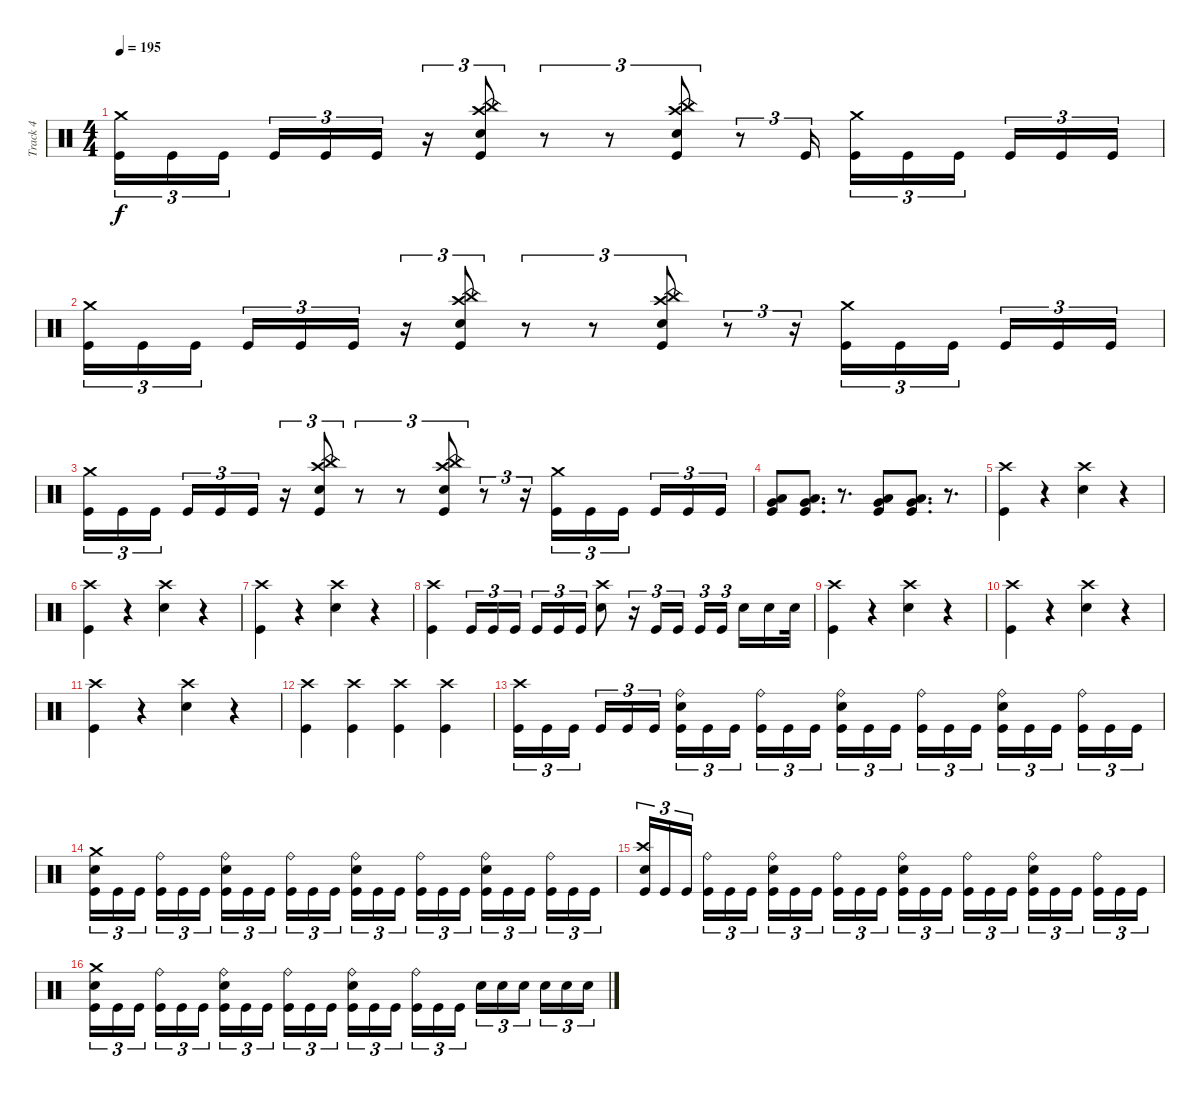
\track ("Track 4" "Track 4") {instrument percussion}
\staff {score}
\articulation defaults
\ts (4 4)
\tempo 195
\clef neutral
\ks c
("Crash medium (hit)" "Kick (hit)").16{tu (3 2) dy f} "Kick (hit)".16{tu (3 2)} "Kick (hit)".16{tu (3 2)} "Kick (hit)".16{tu (3 2)} "Kick (hit)".16{tu (3 2)} "Kick (hit)".16{tu (3 2)} r.16{tu (3 2)} ("Crash high (hit)" "China (hit)" "Electric Snare (hit)" "Kick (hit)").8{tu (3 2)} r.8{tu (3 2)} r.8{tu (3 2)} ("Crash high (hit)" "China (hit)" "Electric Snare (hit)" "Kick (hit)").8{tu (3 2)} r.8{tu (3 2)} "Kick (hit)".16{tu (3 2)} ("Crash medium (hit)" "Kick (hit)").16{tu (3 2)} "Kick (hit)".16{tu (3 2)} "Kick (hit)".16{tu (3 2)} "Kick (hit)".16{tu (3 2)} "Kick (hit)".16{tu (3 2)} "Kick (hit)".16{tu (3 2)} |
("Crash medium (hit)" "Kick (hit)").16{tu (3 2)} "Kick (hit)".16{tu (3 2)} "Kick (hit)".16{tu (3 2)} "Kick (hit)".16{tu (3 2)} "Kick (hit)".16{tu (3 2)} "Kick (hit)".16{tu (3 2)} r.16{tu (3 2)} ("Crash high (hit)" "China (hit)" "Electric Snare (hit)" "Kick (hit)").8{tu (3 2)} r.8{tu (3 2)} r.8{tu (3 2)} ("Crash high (hit)" "China (hit)" "Electric Snare (hit)" "Kick (hit)").8{tu (3 2)} r.8{tu (3 2)} r.16{tu (3 2)} ("Crash medium (hit)" "Kick (hit)").16{tu (3 2)} "Kick (hit)".16{tu (3 2)} "Kick (hit)".16{tu (3 2)} "Kick (hit)".16{tu (3 2)} "Kick (hit)".16{tu (3 2)} "Kick (hit)".16{tu (3 2)} |
("Crash medium (hit)" "Kick (hit)").16{tu (3 2)} "Kick (hit)".16{tu (3 2)} "Kick (hit)".16{tu (3 2)} "Kick (hit)".16{tu (3 2)} "Kick (hit)".16{tu (3 2)} "Kick (hit)".16{tu (3 2)} r.16{tu (3 2)} ("Crash high (hit)" "China (hit)" "Electric Snare (hit)" "Kick (hit)").8{tu (3 2)} r.8{tu (3 2)} r.8{tu (3 2)} ("Crash high (hit)" "China (hit)" "Electric Snare (hit)" "Kick (hit)").8{tu (3 2)} r.8{tu (3 2)} r.16{tu (3 2)} ("Crash medium (hit)" "Kick (hit)").16{tu (3 2)} "Kick (hit)".16{tu (3 2)} "Kick (hit)".16{tu (3 2)} "Kick (hit)".16{tu (3 2)} "Kick (hit)".16{tu (3 2)} "Kick (hit)".16{tu (3 2)} |
("Very Low Tom (hit)" "Low Floor Tom (hit)" "Kick (hit)").8 ("Very Low Tom (hit)" "Low Floor Tom (hit)" "Kick (hit)").8{d} r.8{d} ("Very Low Tom (hit)" "Low Floor Tom (hit)" "Kick (hit)").8 ("Very Low Tom (hit)" "Low Floor Tom (hit)" "Kick (hit)").8{d} r.8{d} |
("Crash high (hit)" "Kick (hit)").4 r.4 ("Crash high (hit)" "Electric Snare (hit)").4 r.4 |
("Crash high (hit)" "Kick (hit)").4 r.4 ("Crash high (hit)" "Electric Snare (hit)").4 r.4 |
("Crash high (hit)" "Kick (hit)").4 r.4 ("Crash high (hit)" "Electric Snare (hit)").4 r.4 |
("Crash high (hit)" "Kick (hit)").4 "Kick (hit)".16{tu (3 2)} "Kick (hit)".16{tu (3 2)} "Kick (hit)".16{tu (3 2)} "Kick (hit)".16{tu (3 2)} "Kick (hit)".16{tu (3 2)} "Kick (hit)".16{tu (3 2)} ("Crash high (hit)" "Electric Snare (hit)").8 r.16{tu (3 2)} "Kick (hit)".16{tu (3 2)} "Kick (hit)".16{tu (3 2)} "Kick (hit)".16{tu (3 2)} "Kick (hit)".16{tu (3 2)} "Electric Snare (hit)".16 "Electric Snare (hit)".16 "Electric Snare (hit)".32 |
("Crash high (hit)" "Kick (hit)").4 r.4 ("Crash high (hit)" "Electric Snare (hit)").4 r.4 |
("Crash high (hit)" "Kick (hit)").4 r.4 ("Crash high (hit)" "Electric Snare (hit)").4 r.4 |
("Crash high (hit)" "Kick (hit)").4 r.4 ("Crash high (hit)" "Electric Snare (hit)").4 r.4 |
("Crash high (hit)"{x} "Kick (hit)").4 ("Crash high (hit)"{x} "Kick (hit)").4 ("Crash high (hit)"{x} "Kick (hit)").4 ("Crash high (hit)"{x} "Kick (hit)").4 |
("Crash high (hit)" "Kick (hit)").16{tu (3 2)} "Kick (hit)".16{tu (3 2)} "Kick (hit)".16{tu (3 2)} "Kick (hit)".16{tu (3 2)} "Kick (hit)".16{tu (3 2)} "Kick (hit)".16{tu (3 2)} ("Ride (bell)" "Electric Snare (hit)" "Kick (hit)").16{tu (3 2)} "Kick (hit)".16{tu (3 2)} "Kick (hit)".16{tu (3 2)} ("Ride (bell)" "Kick (hit)").16{tu (3 2)} "Kick (hit)".16{tu (3 2)} "Kick (hit)".16{tu (3 2)} ("Ride (bell)" "Electric Snare (hit)" "Kick (hit)").16{tu (3 2)} "Kick (hit)".16{tu (3 2)} "Kick (hit)".16{tu (3 2)} ("Ride (bell)" "Kick (hit)").16{tu (3 2)} "Kick (hit)".16{tu (3 2)} "Kick (hit)".16{tu (3 2)} ("Ride (bell)" "Electric Snare (hit)" "Kick (hit)").16{tu (3 2)} "Kick (hit)".16{tu (3 2)} "Kick (hit)".16{tu (3 2)} ("Ride (bell)" "Kick (hit)").16{tu (3 2)} "Kick (hit)".16{tu (3 2)} "Kick (hit)".16{tu (3 2)} |
("Crash medium (hit)" "Electric Snare (hit)" "Kick (hit)").16{tu (3 2)} "Kick (hit)".16{tu (3 2)} "Kick (hit)".16{tu (3 2)} ("Ride (bell)" "Kick (hit)").16{tu (3 2)} "Kick (hit)".16{tu (3 2)} "Kick (hit)".16{tu (3 2)} ("Ride (bell)" "Electric Snare (hit)" "Kick (hit)").16{tu (3 2)} "Kick (hit)".16{tu (3 2)} "Kick (hit)".16{tu (3 2)} ("Ride (bell)" "Kick (hit)").16{tu (3 2)} "Kick (hit)".16{tu (3 2)} "Kick (hit)".16{tu (3 2)} ("Ride (bell)" "Electric Snare (hit)" "Kick (hit)").16{tu (3 2)} "Kick (hit)".16{tu (3 2)} "Kick (hit)".16{tu (3 2)} ("Ride (bell)" "Kick (hit)").16{tu (3 2)} "Kick (hit)".16{tu (3 2)} "Kick (hit)".16{tu (3 2)} ("Ride (bell)" "Electric Snare (hit)" "Kick (hit)").16{tu (3 2)} "Kick (hit)".16{tu (3 2)} "Kick (hit)".16{tu (3 2)} ("Ride (bell)" "Kick (hit)").16{tu (3 2)} "Kick (hit)".16{tu (3 2)} "Kick (hit)".16{tu (3 2)} |
("Crash high (hit)" "Electric Snare (hit)" "Kick (hit)").16{tu (3 2)} "Kick (hit)".16{tu (3 2)} "Kick (hit)".16{tu (3 2)} ("Ride (bell)" "Kick (hit)").16{tu (3 2)} "Kick (hit)".16{tu (3 2)} "Kick (hit)".16{tu (3 2)} ("Ride (bell)" "Electric Snare (hit)" "Kick (hit)").16{tu (3 2)} "Kick (hit)".16{tu (3 2)} "Kick (hit)".16{tu (3 2)} ("Ride (bell)" "Kick (hit)").16{tu (3 2)} "Kick (hit)".16{tu (3 2)} "Kick (hit)".16{tu (3 2)} ("Ride (bell)" "Electric Snare (hit)" "Kick (hit)").16{tu (3 2)} "Kick (hit)".16{tu (3 2)} "Kick (hit)".16{tu (3 2)} ("Ride (bell)" "Kick (hit)").16{tu (3 2)} "Kick (hit)".16{tu (3 2)} "Kick (hit)".16{tu (3 2)} ("Ride (bell)" "Electric Snare (hit)" "Kick (hit)").16{tu (3 2)} "Kick (hit)".16{tu (3 2)} "Kick (hit)".16{tu (3 2)} ("Ride (bell)" "Kick (hit)").16{tu (3 2)} "Kick (hit)".16{tu (3 2)} "Kick (hit)".16{tu (3 2)} |
("Crash medium (hit)" "Electric Snare (hit)" "Kick (hit)").16{tu (3 2)} "Kick (hit)".16{tu (3 2)} "Kick (hit)".16{tu (3 2)} ("Ride (bell)" "Kick (hit)").16{tu (3 2)} "Kick (hit)".16{tu (3 2)} "Kick (hit)".16{tu (3 2)} ("Ride (bell)" "Electric Snare (hit)" "Kick (hit)").16{tu (3 2)} "Kick (hit)".16{tu (3 2)} "Kick (hit)".16{tu (3 2)} ("Ride (bell)" "Kick (hit)").16{tu (3 2)} "Kick (hit)".16{tu (3 2)} "Kick (hit)".16{tu (3 2)} ("Ride (bell)" "Electric Snare (hit)" "Kick (hit)").16{tu (3 2)} "Kick (hit)".16{tu (3 2)} "Kick (hit)".16{tu (3 2)} ("Ride (bell)" "Kick (hit)").16{tu (3 2)} "Kick (hit)".16{tu (3 2)} "Kick (hit)".16{tu (3 2)} "Electric Snare (hit)".16{tu (3 2)} "Electric Snare (hit)".16{tu (3 2)} "Electric Snare (hit)".16{tu (3 2)} "Electric Snare (hit)".16{tu (3 2)} "Electric Snare (hit)".16{tu (3 2)} "Electric Snare (hit)".16{tu (3 2)}
